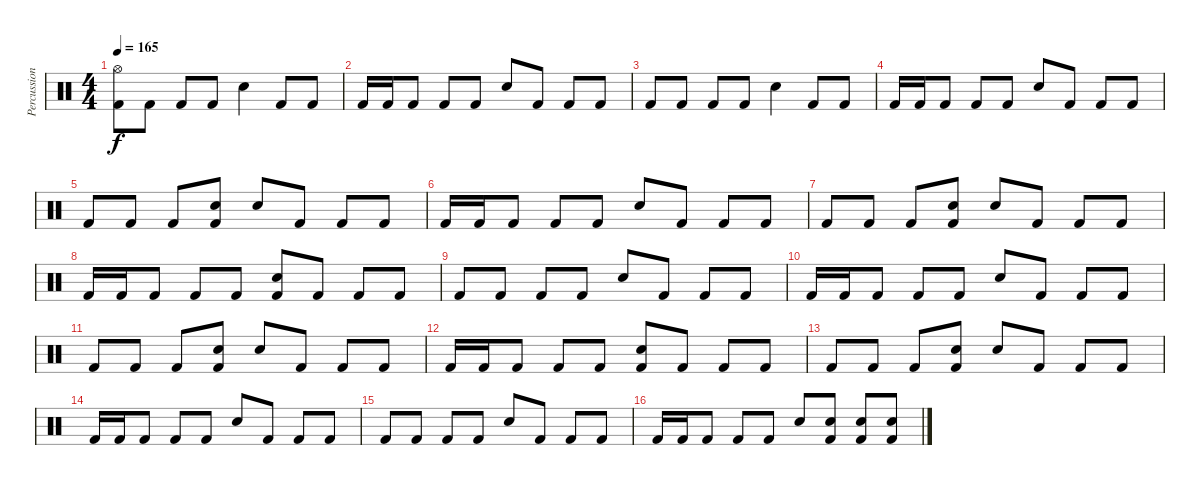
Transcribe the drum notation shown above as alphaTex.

\track ("Percussion" "Percussion") {instrument percussion}
\staff {score}
\articulation defaults
\ts (4 4)
\tempo 165
\clef neutral
\ks c
("Hi-Hat (open)" "Kick (hit) 2").8{dy f} "Kick (hit) 2".8 "Kick (hit) 2".8 "Kick (hit) 2".8 "Electric Snare (hit)".4 "Kick (hit) 2".8 "Kick (hit) 2".8 |
"Kick (hit) 2".16 "Kick (hit) 2".16 "Kick (hit) 2".8 "Kick (hit) 2".8 "Kick (hit) 2".8 "Electric Snare (hit)".8 "Kick (hit) 2".8 "Kick (hit) 2".8 "Kick (hit) 2".8 |
"Kick (hit) 2".8 "Kick (hit) 2".8 "Kick (hit) 2".8 "Kick (hit) 2".8 "Electric Snare (hit)".4 "Kick (hit) 2".8 "Kick (hit) 2".8 |
"Kick (hit) 2".16 "Kick (hit) 2".16 "Kick (hit) 2".8 "Kick (hit) 2".8 "Kick (hit) 2".8 "Electric Snare (hit)".8 "Kick (hit) 2".8 "Kick (hit) 2".8 "Kick (hit) 2".8 |
"Kick (hit) 2".8 "Kick (hit) 2".8 "Kick (hit) 2".8 ("Snare (hit)" "Kick (hit) 2").8 "Electric Snare (hit)".8 "Kick (hit) 2".8 "Kick (hit) 2".8 "Kick (hit) 2".8 |
"Kick (hit) 2".16 "Kick (hit) 2".16 "Kick (hit) 2".8 "Kick (hit) 2".8 "Kick (hit) 2".8 "Electric Snare (hit)".8 "Kick (hit) 2".8 "Kick (hit) 2".8 "Kick (hit) 2".8 |
"Kick (hit) 2".8 "Kick (hit) 2".8 "Kick (hit) 2".8 ("Snare (hit)" "Kick (hit) 2").8 "Electric Snare (hit)".8 "Kick (hit) 2".8 "Kick (hit) 2".8 "Kick (hit) 2".8 |
"Kick (hit) 2".16 "Kick (hit) 2".16 "Kick (hit) 2".8 "Kick (hit) 2".8 "Kick (hit) 2".8 ("Electric Snare (hit)" "Kick (hit) 2").8 "Kick (hit) 2".8 "Kick (hit) 2".8 "Kick (hit) 2".8 |
"Kick (hit) 2".8 "Kick (hit) 2".8 "Kick (hit) 2".8 "Kick (hit) 2".8 "Electric Snare (hit)".8 "Kick (hit) 2".8 "Kick (hit) 2".8 "Kick (hit) 2".8 |
"Kick (hit) 2".16 "Kick (hit) 2".16 "Kick (hit) 2".8 "Kick (hit) 2".8 "Kick (hit) 2".8 "Electric Snare (hit)".8 "Kick (hit) 2".8 "Kick (hit) 2".8 "Kick (hit) 2".8 |
"Kick (hit) 2".8 "Kick (hit) 2".8 "Kick (hit) 2".8 ("Snare (hit)" "Kick (hit) 2").8 "Electric Snare (hit)".8 "Kick (hit) 2".8 "Kick (hit) 2".8 "Kick (hit) 2".8 |
"Kick (hit) 2".16 "Kick (hit) 2".16 "Kick (hit) 2".8 "Kick (hit) 2".8 "Kick (hit) 2".8 ("Electric Snare (hit)" "Kick (hit) 2").8 "Kick (hit) 2".8 "Kick (hit) 2".8 "Kick (hit) 2".8 |
"Kick (hit) 2".8 "Kick (hit) 2".8 "Kick (hit) 2".8 ("Snare (hit)" "Kick (hit) 2").8 "Electric Snare (hit)".8 "Kick (hit) 2".8 "Kick (hit) 2".8 "Kick (hit) 2".8 |
"Kick (hit) 2".16 "Kick (hit) 2".16 "Kick (hit) 2".8 "Kick (hit) 2".8 "Kick (hit) 2".8 "Electric Snare (hit)".8 "Kick (hit) 2".8 "Kick (hit) 2".8 "Kick (hit) 2".8 |
"Kick (hit) 2".8 "Kick (hit) 2".8 "Kick (hit) 2".8 "Kick (hit) 2".8 "Electric Snare (hit)".8 "Kick (hit) 2".8 "Kick (hit) 2".8 "Kick (hit) 2".8 |
"Kick (hit) 2".16 "Kick (hit) 2".16 "Kick (hit) 2".8 "Kick (hit) 2".8 "Kick (hit) 2".8 "Electric Snare (hit)".8 ("Electric Snare (hit)" "Kick (hit) 2").8 ("Electric Snare (hit)" "Kick (hit) 2").8 ("Electric Snare (hit)" "Kick (hit) 2").8
